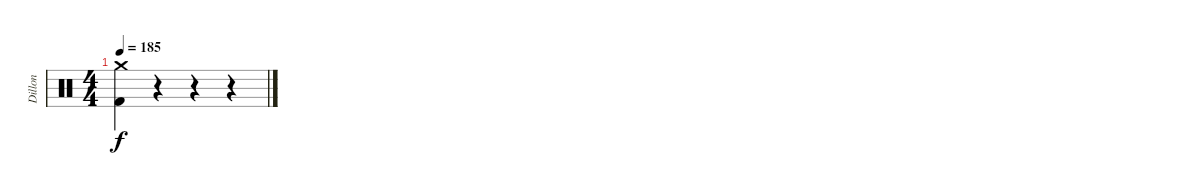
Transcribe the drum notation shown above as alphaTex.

\track ("Dillon" "Dillon") {instrument percussion}
\staff {score}
\articulation defaults
\ts (4 4)
\tempo 185
\clef neutral
\ks c
("Crash medium (hit)" "Kick (hit) 2").4{dy f} r.4{volume 0} r.4 r.4
